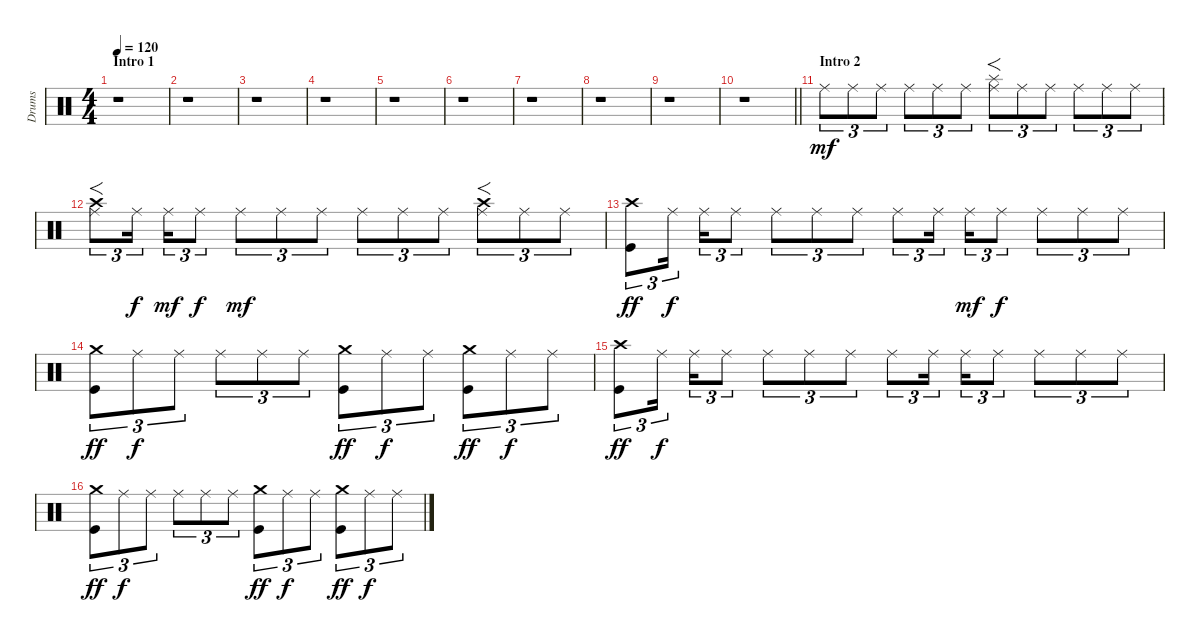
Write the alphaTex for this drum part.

\track ("Drums" "Drums") {instrument percussion}
\staff {score}
\articulation defaults
\ts (4 4)
\section ("" "Intro 1")
\tempo 120
\tempo 95
\tempo 120
\clef neutral
\ks c
r.1{dy mf} |
r.1 |
r.1 |
r.1 |
r.1 |
r.1 |
r.1 |
r.1 |
r.1 |
\barLineRight lightlight
r.1 |
\section ("" "Intro 2")
"Ride (middle)".8{tu (3 2)} "Ride (middle)".8{tu (3 2)} "Ride (middle)".8{tu (3 2)} "Ride (middle)".8{tu (3 2)} "Ride (middle)".8{tu (3 2)} "Ride (middle)".8{tu (3 2)} ("Ride (middle)" "Splash (hit)").8{f tu (3 2)} "Ride (middle)".8{tu (3 2)} "Ride (middle)".8{tu (3 2)} "Ride (middle)".8{tu (3 2)} "Ride (middle)".8{tu (3 2)} "Ride (middle)".8{tu (3 2)} |
("Ride (middle)" "Crash high (hit)").8{f tu (3 2)} "Ride (middle)".16{tu (3 2) dy f} "Ride (middle)".16{tu (3 2) dy mf} "Ride (middle)".8{tu (3 2) dy f} "Ride (middle)".8{tu (3 2) dy mf} "Ride (middle)".8{tu (3 2)} "Ride (middle)".8{tu (3 2)} "Ride (middle)".8{tu (3 2)} "Ride (middle)".8{tu (3 2)} "Ride (middle)".8{tu (3 2)} ("Ride (middle)" "Crash high (hit)").8{f tu (3 2)} "Ride (middle)".8{tu (3 2)} "Ride (middle)".8{tu (3 2)} |
("Crash high (hit)" "Kick (hit)").8{tu (3 2) dy ff} "Ride (middle)".16{tu (3 2) dy f} "Ride (middle)".16{tu (3 2)} "Ride (middle)".8{tu (3 2)} "Ride (middle)".8{tu (3 2)} "Ride (middle)".8{tu (3 2)} "Ride (middle)".8{tu (3 2)} "Ride (middle)".8{tu (3 2)} "Ride (middle)".16{tu (3 2)} "Ride (middle)".16{tu (3 2) dy mf} "Ride (middle)".8{tu (3 2) dy f} "Ride (middle)".8{tu (3 2)} "Ride (middle)".8{tu (3 2)} "Ride (middle)".8{tu (3 2)} |
("Crash medium (hit)" "Kick (hit)").8{tu (3 2) dy ff} "Ride (middle)".8{tu (3 2) dy f} "Ride (middle)".8{tu (3 2)} "Ride (middle)".8{tu (3 2)} "Ride (middle)".8{tu (3 2)} "Ride (middle)".8{tu (3 2)} ("Crash medium (hit)" "Kick (hit)").8{tu (3 2) dy ff} "Ride (middle)".8{tu (3 2) dy f} "Ride (middle)".8{tu (3 2)} ("Crash medium (hit)" "Kick (hit)").8{tu (3 2) dy ff} "Ride (middle)".8{tu (3 2) dy f} "Ride (middle)".8{tu (3 2)} |
("Crash high (hit)" "Kick (hit)").8{tu (3 2) dy ff} "Ride (middle)".16{tu (3 2) dy f} "Ride (middle)".16{tu (3 2)} "Ride (middle)".8{tu (3 2)} "Ride (middle)".8{tu (3 2)} "Ride (middle)".8{tu (3 2)} "Ride (middle)".8{tu (3 2)} "Ride (middle)".8{tu (3 2)} "Ride (middle)".16{tu (3 2)} "Ride (middle)".16{tu (3 2)} "Ride (middle)".8{tu (3 2)} "Ride (middle)".8{tu (3 2)} "Ride (middle)".8{tu (3 2)} "Ride (middle)".8{tu (3 2)} |
("Crash medium (hit)" "Kick (hit)").8{tu (3 2) dy ff} "Ride (middle)".8{tu (3 2) dy f} "Ride (middle)".8{tu (3 2)} "Ride (middle)".8{tu (3 2)} "Ride (middle)".8{tu (3 2)} "Ride (middle)".8{tu (3 2)} ("Crash medium (hit)" "Kick (hit)").8{tu (3 2) dy ff} "Ride (middle)".8{tu (3 2) dy f} "Ride (middle)".8{tu (3 2)} ("Crash medium (hit)" "Kick (hit)").8{tu (3 2) dy ff} "Ride (middle)".8{tu (3 2) dy f} "Ride (middle)".8{tu (3 2)}
